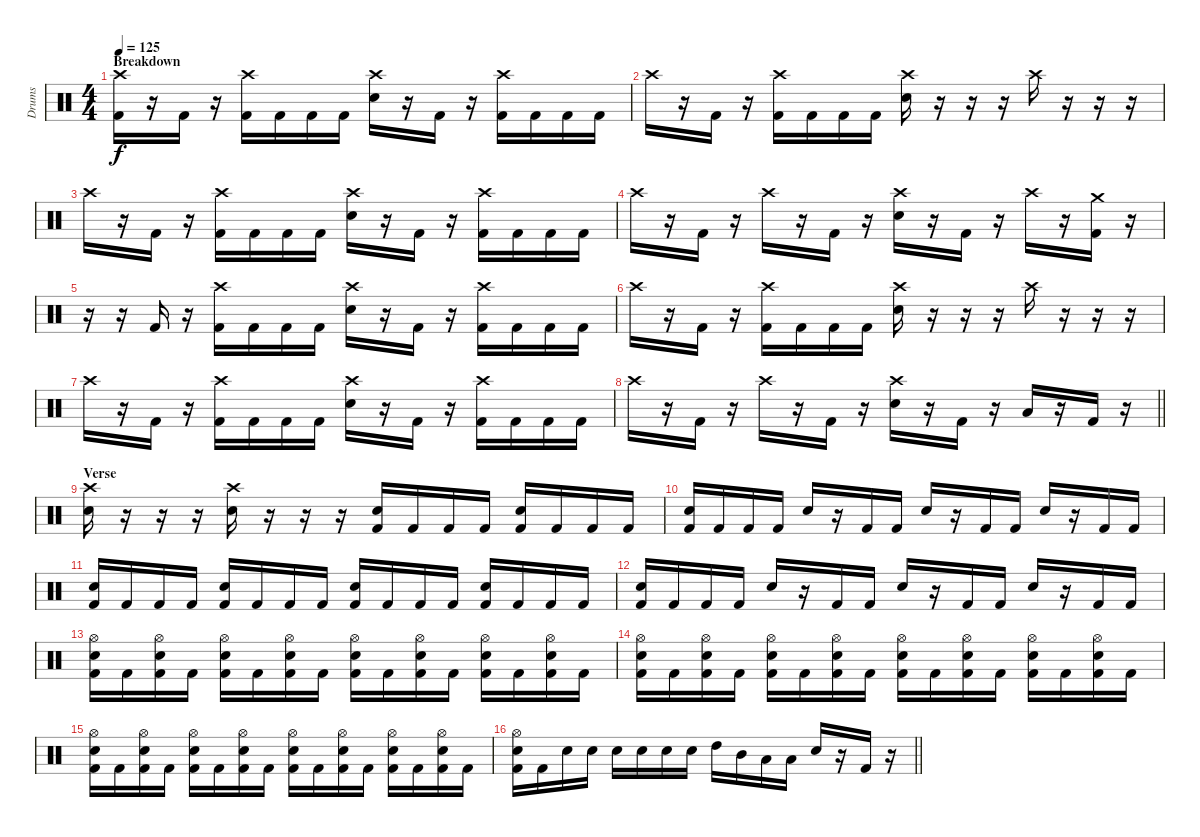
\track ("Drums" "Drums") {instrument percussion}
\staff {score}
\articulation defaults
\ts (4 4)
\section ("" "Breakdown")
\tempo 125
\clef neutral
\ks c
("Crash high (hit)" "Kick (hit) 2").16{dy f} r.16 "Kick (hit) 2".16 r.16 ("Crash high (hit)" "Kick (hit) 2").16 "Kick (hit) 2".16 "Kick (hit) 2".16 "Kick (hit) 2".16 ("Crash high (hit)" "Electric Snare (hit)").16 r.16 "Kick (hit) 2".16 r.16 ("Crash high (hit)" "Kick (hit) 2").16 "Kick (hit) 2".16 "Kick (hit) 2".16 "Kick (hit) 2".16 |
"Crash high (hit)".16 r.16 "Kick (hit) 2".16 r.16 ("Crash high (hit)" "Kick (hit) 2").16 "Kick (hit) 2".16 "Kick (hit) 2".16 "Kick (hit) 2".16 ("Crash high (hit)" "Electric Snare (hit)").16 r.16 r.16 r.16 "Crash high (hit)".16 r.16 r.16 r.16 |
"Crash high (hit)".16 r.16 "Kick (hit) 2".16 r.16 ("Crash high (hit)" "Kick (hit) 2").16 "Kick (hit) 2".16 "Kick (hit) 2".16 "Kick (hit) 2".16 ("Crash high (hit)" "Electric Snare (hit)").16 r.16 "Kick (hit) 2".16 r.16 ("Crash high (hit)" "Kick (hit) 2").16 "Kick (hit) 2".16 "Kick (hit) 2".16 "Kick (hit) 2".16 |
"Crash high (hit)".16 r.16 "Kick (hit) 2".16 r.16 "Crash high (hit)".16 r.16 "Kick (hit) 2".16 r.16 ("Crash high (hit)" "Electric Snare (hit)").16 r.16 "Kick (hit) 2".16 r.16 "Crash high (hit)".16 r.16 ("Crash medium (hit)" "Kick (hit) 2").16 r.16 |
r.16 r.16 "Kick (hit) 2".16 r.16 ("Crash high (hit)" "Kick (hit) 2").16 "Kick (hit) 2".16 "Kick (hit) 2".16 "Kick (hit) 2".16 ("Crash high (hit)" "Electric Snare (hit)").16 r.16 "Kick (hit) 2".16 r.16 ("Crash high (hit)" "Kick (hit) 2").16 "Kick (hit) 2".16 "Kick (hit) 2".16 "Kick (hit) 2".16 |
"Crash high (hit)".16 r.16 "Kick (hit) 2".16 r.16 ("Crash high (hit)" "Kick (hit) 2").16 "Kick (hit) 2".16 "Kick (hit) 2".16 "Kick (hit) 2".16 ("Crash high (hit)" "Electric Snare (hit)").16 r.16 r.16 r.16 "Crash high (hit)".16 r.16 r.16 r.16 |
"Crash high (hit)".16 r.16 "Kick (hit) 2".16 r.16 ("Crash high (hit)" "Kick (hit) 2").16 "Kick (hit) 2".16 "Kick (hit) 2".16 "Kick (hit) 2".16 ("Crash high (hit)" "Electric Snare (hit)").16 r.16 "Kick (hit) 2".16 r.16 ("Crash high (hit)" "Kick (hit) 2").16 "Kick (hit) 2".16 "Kick (hit) 2".16 "Kick (hit) 2".16 |
\barLineRight lightlight "Crash high (hit)".16
r.16 "Kick (hit) 2".16 r.16 "Crash high (hit)".16 r.16 "Kick (hit) 2".16 r.16 ("Crash high (hit)" "Electric Snare (hit)").16 r.16 "Kick (hit) 2".16 r.16 "Low Floor Tom (hit)".16 r.16 "Kick (hit) 2".16 r.16 |
\section ("" "Verse ")
("Crash high (hit)" "Electric Snare (hit)").16 r.16 r.16 r.16 ("Crash high (hit)" "Electric Snare (hit)").16 r.16 r.16 r.16 ("Electric Snare (hit)" "Kick (hit) 2").16 "Kick (hit) 2".16 "Kick (hit) 2".16 "Kick (hit) 2".16 ("Electric Snare (hit)" "Kick (hit) 2").16 "Kick (hit) 2".16 "Kick (hit) 2".16 "Kick (hit) 2".16 |
("Electric Snare (hit)" "Kick (hit) 2").16 "Kick (hit) 2".16 "Kick (hit) 2".16 "Kick (hit) 2".16 "Electric Snare (hit)".16 r.16 "Kick (hit) 2".16 "Kick (hit) 2".16 "Electric Snare (hit)".16 r.16 "Kick (hit) 2".16 "Kick (hit) 2".16 "Electric Snare (hit)".16 r.16 "Kick (hit) 2".16 "Kick (hit) 2".16 |
("Electric Snare (hit)" "Kick (hit) 2").16 "Kick (hit) 2".16 "Kick (hit) 2".16 "Kick (hit) 2".16 ("Electric Snare (hit)" "Kick (hit) 2").16 "Kick (hit) 2".16 "Kick (hit) 2".16 "Kick (hit) 2".16 ("Electric Snare (hit)" "Kick (hit) 2").16 "Kick (hit) 2".16 "Kick (hit) 2".16 "Kick (hit) 2".16 ("Electric Snare (hit)" "Kick (hit) 2").16 "Kick (hit) 2".16 "Kick (hit) 2".16 "Kick (hit) 2".16 |
("Electric Snare (hit)" "Kick (hit) 2").16 "Kick (hit) 2".16 "Kick (hit) 2".16 "Kick (hit) 2".16 "Electric Snare (hit)".16 r.16 "Kick (hit) 2".16 "Kick (hit) 2".16 "Electric Snare (hit)".16 r.16 "Kick (hit) 2".16 "Kick (hit) 2".16 "Electric Snare (hit)".16 r.16 "Kick (hit) 2".16 "Kick (hit) 2".16 |
("Hi-Hat (open)" "Electric Snare (hit)" "Kick (hit) 2").16 "Kick (hit) 2".16 ("Hi-Hat (open)" "Electric Snare (hit)" "Kick (hit) 2").16 "Kick (hit) 2".16 ("Hi-Hat (open)" "Electric Snare (hit)" "Kick (hit) 2").16 "Kick (hit) 2".16 ("Hi-Hat (open)" "Electric Snare (hit)" "Kick (hit) 2").16 "Kick (hit) 2".16 ("Hi-Hat (open)" "Electric Snare (hit)" "Kick (hit) 2").16 "Kick (hit) 2".16 ("Hi-Hat (open)" "Electric Snare (hit)" "Kick (hit) 2").16 "Kick (hit) 2".16 ("Hi-Hat (open)" "Electric Snare (hit)" "Kick (hit) 2").16 "Kick (hit) 2".16 ("Hi-Hat (open)" "Electric Snare (hit)" "Kick (hit) 2").16 "Kick (hit) 2".16 |
("Hi-Hat (open)" "Electric Snare (hit)" "Kick (hit) 2").16 "Kick (hit) 2".16 ("Hi-Hat (open)" "Electric Snare (hit)" "Kick (hit) 2").16 "Kick (hit) 2".16 ("Hi-Hat (open)" "Electric Snare (hit)" "Kick (hit) 2").16 "Kick (hit) 2".16 ("Hi-Hat (open)" "Electric Snare (hit)" "Kick (hit) 2").16 "Kick (hit) 2".16 ("Hi-Hat (open)" "Electric Snare (hit)" "Kick (hit) 2").16 "Kick (hit) 2".16 ("Hi-Hat (open)" "Electric Snare (hit)" "Kick (hit) 2").16 "Kick (hit) 2".16 ("Hi-Hat (open)" "Electric Snare (hit)" "Kick (hit) 2").16 "Kick (hit) 2".16 ("Hi-Hat (open)" "Electric Snare (hit)" "Kick (hit) 2").16 "Kick (hit) 2".16 |
("Hi-Hat (open)" "Electric Snare (hit)" "Kick (hit) 2").16 "Kick (hit) 2".16 ("Hi-Hat (open)" "Electric Snare (hit)" "Kick (hit) 2").16 "Kick (hit) 2".16 ("Hi-Hat (open)" "Electric Snare (hit)" "Kick (hit) 2").16 "Kick (hit) 2".16 ("Hi-Hat (open)" "Electric Snare (hit)" "Kick (hit) 2").16 "Kick (hit) 2".16 ("Hi-Hat (open)" "Electric Snare (hit)" "Kick (hit) 2").16 "Kick (hit) 2".16 ("Hi-Hat (open)" "Electric Snare (hit)" "Kick (hit) 2").16 "Kick (hit) 2".16 ("Hi-Hat (open)" "Electric Snare (hit)" "Kick (hit) 2").16 "Kick (hit) 2".16 ("Hi-Hat (open)" "Electric Snare (hit)" "Kick (hit) 2").16 "Kick (hit) 2".16 |
\barLineRight lightlight
("Hi-Hat (open)" "Electric Snare (hit)" "Kick (hit) 2").16 "Kick (hit) 2".16 "Electric Snare (hit)".16 "Electric Snare (hit)".16 "Electric Snare (hit)".16 "Electric Snare (hit)".16 "Electric Snare (hit)".16 "Electric Snare (hit)".16 "High Tom (hit)".16 "Mid Tom (hit)".16 "Low Tom (hit)".16 "Low Floor Tom (hit)".16 "Electric Snare (hit)".16 r.16 "Kick (hit) 2".16 r.16
